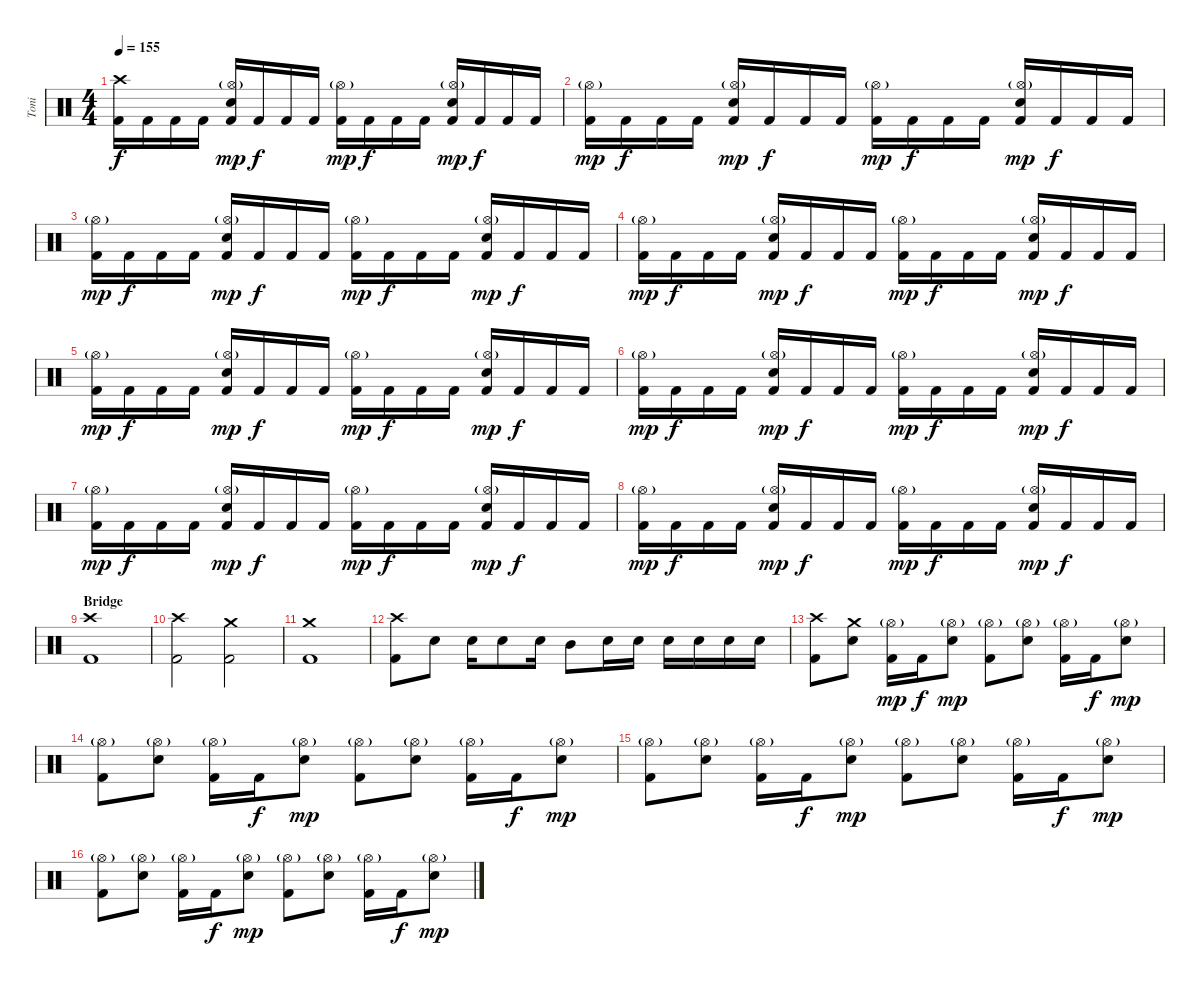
\track ("Toni" "Toni") {instrument percussion}
\staff {score}
\articulation defaults
\ts (4 4)
\tempo 155
\clef neutral
\ks c
("Crash high (hit)" "Kick (hit) 2").16{dy f} "Kick (hit) 2".16 "Kick (hit) 2".16 "Kick (hit) 2".16 ("Hi-Hat (open)"{g} "Electric Snare (hit)" "Kick (hit) 2").16{dy mp} "Kick (hit) 2".16{dy f} "Kick (hit) 2".16 "Kick (hit) 2".16 ("Hi-Hat (open)"{g} "Kick (hit) 2").16{dy mp} "Kick (hit) 2".16{dy f} "Kick (hit) 2".16 "Kick (hit) 2".16 ("Hi-Hat (open)"{g} "Electric Snare (hit)" "Kick (hit) 2").16{dy mp} "Kick (hit) 2".16{dy f} "Kick (hit) 2".16 "Kick (hit) 2".16 |
("Hi-Hat (open)"{g} "Kick (hit) 2").16{dy mp} "Kick (hit) 2".16{dy f} "Kick (hit) 2".16 "Kick (hit) 2".16 ("Hi-Hat (open)"{g} "Electric Snare (hit)" "Kick (hit) 2").16{dy mp} "Kick (hit) 2".16{dy f} "Kick (hit) 2".16 "Kick (hit) 2".16 ("Hi-Hat (open)"{g} "Kick (hit) 2").16{dy mp} "Kick (hit) 2".16{dy f} "Kick (hit) 2".16 "Kick (hit) 2".16 ("Hi-Hat (open)"{g} "Electric Snare (hit)" "Kick (hit) 2").16{dy mp} "Kick (hit) 2".16{dy f} "Kick (hit) 2".16 "Kick (hit) 2".16 |
("Hi-Hat (open)"{g} "Kick (hit) 2").16{dy mp} "Kick (hit) 2".16{dy f} "Kick (hit) 2".16 "Kick (hit) 2".16 ("Hi-Hat (open)"{g} "Electric Snare (hit)" "Kick (hit) 2").16{dy mp} "Kick (hit) 2".16{dy f} "Kick (hit) 2".16 "Kick (hit) 2".16 ("Hi-Hat (open)"{g} "Kick (hit) 2").16{dy mp} "Kick (hit) 2".16{dy f} "Kick (hit) 2".16 "Kick (hit) 2".16 ("Hi-Hat (open)"{g} "Electric Snare (hit)" "Kick (hit) 2").16{dy mp} "Kick (hit) 2".16{dy f} "Kick (hit) 2".16 "Kick (hit) 2".16 |
("Hi-Hat (open)"{g} "Kick (hit) 2").16{dy mp} "Kick (hit) 2".16{dy f} "Kick (hit) 2".16 "Kick (hit) 2".16 ("Hi-Hat (open)"{g} "Electric Snare (hit)" "Kick (hit) 2").16{dy mp} "Kick (hit) 2".16{dy f} "Kick (hit) 2".16 "Kick (hit) 2".16 ("Hi-Hat (open)"{g} "Kick (hit) 2").16{dy mp} "Kick (hit) 2".16{dy f} "Kick (hit) 2".16 "Kick (hit) 2".16 ("Hi-Hat (open)"{g} "Electric Snare (hit)" "Kick (hit) 2").16{dy mp} "Kick (hit) 2".16{dy f} "Kick (hit) 2".16 "Kick (hit) 2".16 |
("Hi-Hat (open)"{g} "Kick (hit) 2").16{dy mp} "Kick (hit) 2".16{dy f} "Kick (hit) 2".16 "Kick (hit) 2".16 ("Hi-Hat (open)"{g} "Electric Snare (hit)" "Kick (hit) 2").16{dy mp} "Kick (hit) 2".16{dy f} "Kick (hit) 2".16 "Kick (hit) 2".16 ("Hi-Hat (open)"{g} "Kick (hit) 2").16{dy mp} "Kick (hit) 2".16{dy f} "Kick (hit) 2".16 "Kick (hit) 2".16 ("Hi-Hat (open)"{g} "Electric Snare (hit)" "Kick (hit) 2").16{dy mp} "Kick (hit) 2".16{dy f} "Kick (hit) 2".16 "Kick (hit) 2".16 |
("Hi-Hat (open)"{g} "Kick (hit) 2").16{dy mp} "Kick (hit) 2".16{dy f} "Kick (hit) 2".16 "Kick (hit) 2".16 ("Hi-Hat (open)"{g} "Electric Snare (hit)" "Kick (hit) 2").16{dy mp} "Kick (hit) 2".16{dy f} "Kick (hit) 2".16 "Kick (hit) 2".16 ("Hi-Hat (open)"{g} "Kick (hit) 2").16{dy mp} "Kick (hit) 2".16{dy f} "Kick (hit) 2".16 "Kick (hit) 2".16 ("Hi-Hat (open)"{g} "Electric Snare (hit)" "Kick (hit) 2").16{dy mp} "Kick (hit) 2".16{dy f} "Kick (hit) 2".16 "Kick (hit) 2".16 |
("Hi-Hat (open)"{g} "Kick (hit) 2").16{dy mp} "Kick (hit) 2".16{dy f} "Kick (hit) 2".16 "Kick (hit) 2".16 ("Hi-Hat (open)"{g} "Electric Snare (hit)" "Kick (hit) 2").16{dy mp} "Kick (hit) 2".16{dy f} "Kick (hit) 2".16 "Kick (hit) 2".16 ("Hi-Hat (open)"{g} "Kick (hit) 2").16{dy mp} "Kick (hit) 2".16{dy f} "Kick (hit) 2".16 "Kick (hit) 2".16 ("Hi-Hat (open)"{g} "Electric Snare (hit)" "Kick (hit) 2").16{dy mp} "Kick (hit) 2".16{dy f} "Kick (hit) 2".16 "Kick (hit) 2".16 |
("Hi-Hat (open)"{g} "Kick (hit) 2").16{dy mp} "Kick (hit) 2".16{dy f} "Kick (hit) 2".16 "Kick (hit) 2".16 ("Hi-Hat (open)"{g} "Electric Snare (hit)" "Kick (hit) 2").16{dy mp} "Kick (hit) 2".16{dy f} "Kick (hit) 2".16 "Kick (hit) 2".16 ("Hi-Hat (open)"{g} "Kick (hit) 2").16{dy mp} "Kick (hit) 2".16{dy f} "Kick (hit) 2".16 "Kick (hit) 2".16 ("Hi-Hat (open)"{g} "Electric Snare (hit)" "Kick (hit) 2").16{dy mp} "Kick (hit) 2".16{dy f} "Kick (hit) 2".16 "Kick (hit) 2".16 |
\section ("" "Bridge")
("Crash high (hit)" "Kick (hit) 2").1 |
("Crash high (hit)" "Kick (hit) 2").2 ("Crash medium (hit)" "Kick (hit) 2").2 |
("Crash medium (hit)" "Kick (hit) 2").1 |
("Crash high (hit)" "Kick (hit) 2").8 "Electric Snare (hit)".8 "Electric Snare (hit)".16 "Electric Snare (hit)".8 "Electric Snare (hit)".16 "Mid Tom (hit)".8 "Electric Snare (hit)".16 "Electric Snare (hit)".16 "Electric Snare (hit)".16 "Electric Snare (hit)".16 "Electric Snare (hit)".16 "Electric Snare (hit)".16 |
("Crash high (hit)" "Kick (hit) 2").8 ("Crash medium (hit)" "Electric Snare (hit)").8 ("Hi-Hat (open)"{g} "Kick (hit) 2").16{dy mp} "Kick (hit) 2".16{dy f} ("Hi-Hat (open)"{g} "Electric Snare (hit)").8{dy mp} ("Hi-Hat (open)"{g} "Kick (hit) 2").8 ("Hi-Hat (open)"{g} "Electric Snare (hit)").8 ("Hi-Hat (open)"{g} "Kick (hit) 2").16 "Kick (hit) 2".16{dy f} ("Hi-Hat (open)"{g} "Electric Snare (hit)").8{dy mp} |
("Hi-Hat (open)"{g} "Kick (hit) 2").8 ("Hi-Hat (open)"{g} "Electric Snare (hit)").8 ("Hi-Hat (open)"{g} "Kick (hit) 2").16 "Kick (hit) 2".16{dy f} ("Hi-Hat (open)"{g} "Electric Snare (hit)").8{dy mp} ("Hi-Hat (open)"{g} "Kick (hit) 2").8 ("Hi-Hat (open)"{g} "Electric Snare (hit)").8 ("Hi-Hat (open)"{g} "Kick (hit) 2").16 "Kick (hit) 2".16{dy f} ("Hi-Hat (open)"{g} "Electric Snare (hit)").8{dy mp} |
("Hi-Hat (open)"{g} "Kick (hit) 2").8 ("Hi-Hat (open)"{g} "Electric Snare (hit)").8 ("Hi-Hat (open)"{g} "Kick (hit) 2").16 "Kick (hit) 2".16{dy f} ("Hi-Hat (open)"{g} "Electric Snare (hit)").8{dy mp} ("Hi-Hat (open)"{g} "Kick (hit) 2").8 ("Hi-Hat (open)"{g} "Electric Snare (hit)").8 ("Hi-Hat (open)"{g} "Kick (hit) 2").16 "Kick (hit) 2".16{dy f} ("Hi-Hat (open)"{g} "Electric Snare (hit)").8{dy mp} |
("Hi-Hat (open)"{g} "Kick (hit) 2").8 ("Hi-Hat (open)"{g} "Electric Snare (hit)").8 ("Hi-Hat (open)"{g} "Kick (hit) 2").16 "Kick (hit) 2".16{dy f} ("Hi-Hat (open)"{g} "Electric Snare (hit)").8{dy mp} ("Hi-Hat (open)"{g} "Kick (hit) 2").8 ("Hi-Hat (open)"{g} "Electric Snare (hit)").8 ("Hi-Hat (open)"{g} "Kick (hit) 2").16 "Kick (hit) 2".16{dy f} ("Hi-Hat (open)"{g} "Electric Snare (hit)").8{dy mp}
